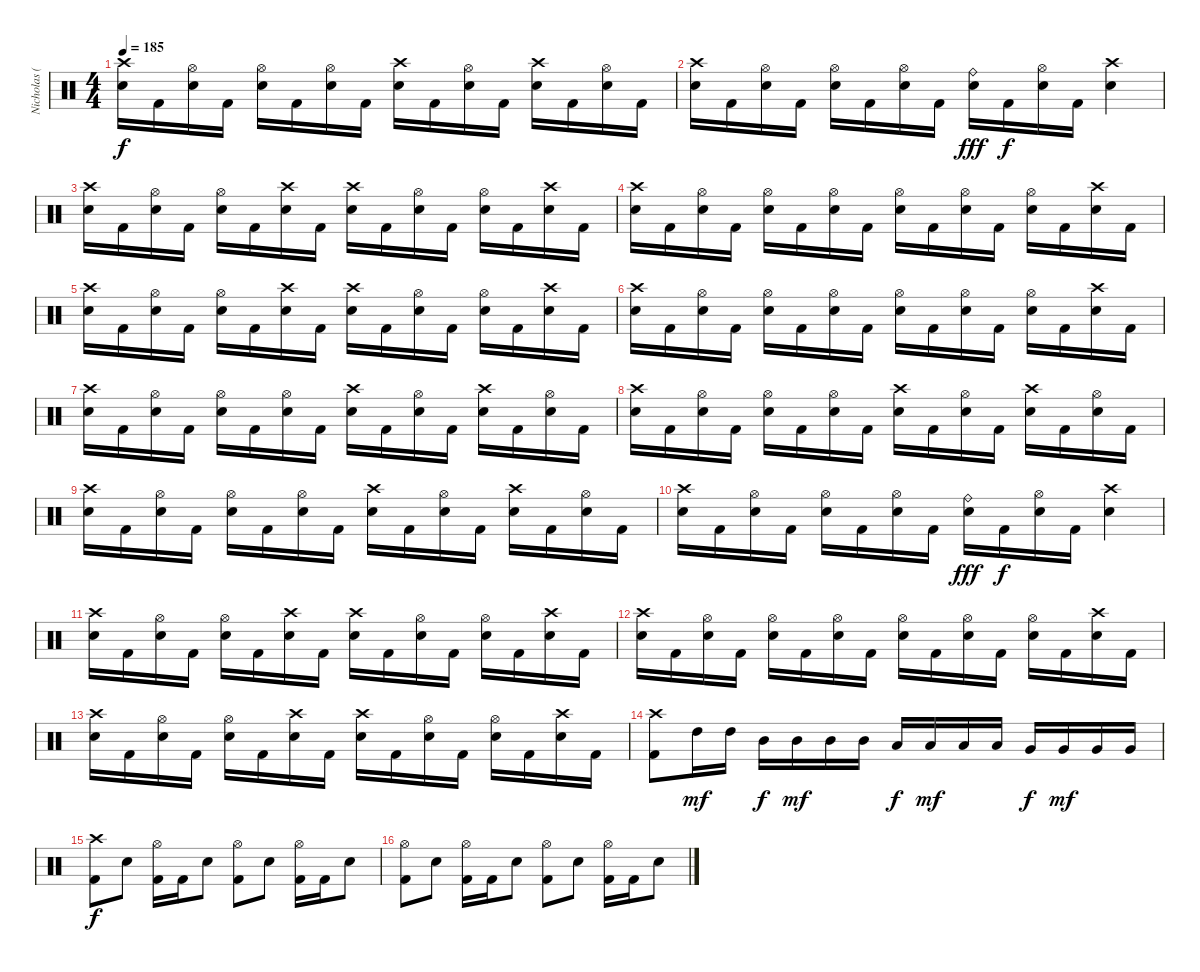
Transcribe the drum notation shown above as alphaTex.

\track ("Nicholas (Drums)" "Nicholas (") {instrument percussion}
\staff {score}
\articulation defaults
\ts (4 4)
\tempo 185
\clef neutral
\ks c
("Crash high (hit)" "Electric Snare (hit)").16{dy f} "Kick (hit) 2".16 ("Hi-Hat (open)" "Electric Snare (hit)").16 "Kick (hit) 2".16 ("Hi-Hat (open)" "Electric Snare (hit)").16 "Kick (hit) 2".16 ("Hi-Hat (open)" "Electric Snare (hit)").16 "Kick (hit) 2".16 ("Crash high (hit)" "Electric Snare (hit)").16 "Kick (hit) 2".16 ("Hi-Hat (open)" "Electric Snare (hit)").16 "Kick (hit) 2".16 ("Crash high (hit)" "Electric Snare (hit)").16 "Kick (hit) 2".16 ("Hi-Hat (open)" "Electric Snare (hit)").16 "Kick (hit) 2".16 |
("Crash high (hit)" "Electric Snare (hit)").16 "Kick (hit) 2".16 ("Hi-Hat (open)" "Electric Snare (hit)").16 "Kick (hit) 2".16 ("Hi-Hat (open)" "Electric Snare (hit)").16 "Kick (hit) 2".16 ("Hi-Hat (open)" "Electric Snare (hit)").16 "Kick (hit) 2".16 ("Ride (bell)" "Electric Snare (hit)").16{dy fff} "Kick (hit) 2".16{dy f} ("Hi-Hat (open)" "Electric Snare (hit)").16 "Kick (hit) 2".16 ("Crash high (hit)" "Electric Snare (hit)").4 |
("Crash high (hit)" "Electric Snare (hit)").16 "Kick (hit) 2".16 ("Hi-Hat (open)" "Electric Snare (hit)").16 "Kick (hit) 2".16 ("Hi-Hat (open)" "Electric Snare (hit)").16 "Kick (hit) 2".16 ("Crash high (hit)" "Electric Snare (hit)").16 "Kick (hit) 2".16 ("Crash high (hit)" "Electric Snare (hit)").16 "Kick (hit) 2".16 ("Hi-Hat (open)" "Electric Snare (hit)").16 "Kick (hit) 2".16 ("Hi-Hat (open)" "Electric Snare (hit)").16 "Kick (hit) 2".16 ("Crash high (hit)" "Electric Snare (hit)").16 "Kick (hit) 2".16 |
("Crash high (hit)" "Electric Snare (hit)").16 "Kick (hit) 2".16 ("Hi-Hat (open)" "Electric Snare (hit)").16 "Kick (hit) 2".16 ("Hi-Hat (open)" "Electric Snare (hit)").16 "Kick (hit) 2".16 ("Hi-Hat (open)" "Electric Snare (hit)").16 "Kick (hit) 2".16 ("Hi-Hat (open)" "Electric Snare (hit)").16 "Kick (hit) 2".16 ("Hi-Hat (open)" "Electric Snare (hit)").16 "Kick (hit) 2".16 ("Hi-Hat (open)" "Electric Snare (hit)").16 "Kick (hit) 2".16 ("Crash high (hit)" "Electric Snare (hit)").16 "Kick (hit) 2".16 |
("Crash high (hit)" "Electric Snare (hit)").16 "Kick (hit) 2".16 ("Hi-Hat (open)" "Electric Snare (hit)").16 "Kick (hit) 2".16 ("Hi-Hat (open)" "Electric Snare (hit)").16 "Kick (hit) 2".16 ("Crash high (hit)" "Electric Snare (hit)").16 "Kick (hit) 2".16 ("Crash high (hit)" "Electric Snare (hit)").16 "Kick (hit) 2".16 ("Hi-Hat (open)" "Electric Snare (hit)").16 "Kick (hit) 2".16 ("Hi-Hat (open)" "Electric Snare (hit)").16 "Kick (hit) 2".16 ("Crash high (hit)" "Electric Snare (hit)").16 "Kick (hit) 2".16 |
("Crash high (hit)" "Electric Snare (hit)").16 "Kick (hit) 2".16 ("Hi-Hat (open)" "Electric Snare (hit)").16 "Kick (hit) 2".16 ("Hi-Hat (open)" "Electric Snare (hit)").16 "Kick (hit) 2".16 ("Hi-Hat (open)" "Electric Snare (hit)").16 "Kick (hit) 2".16 ("Hi-Hat (open)" "Electric Snare (hit)").16 "Kick (hit) 2".16 ("Hi-Hat (open)" "Electric Snare (hit)").16 "Kick (hit) 2".16 ("Hi-Hat (open)" "Electric Snare (hit)").16 "Kick (hit) 2".16 ("Crash high (hit)" "Electric Snare (hit)").16 "Kick (hit) 2".16 |
("Crash high (hit)" "Electric Snare (hit)").16 "Kick (hit) 2".16 ("Hi-Hat (open)" "Electric Snare (hit)").16 "Kick (hit) 2".16 ("Hi-Hat (open)" "Electric Snare (hit)").16 "Kick (hit) 2".16 ("Hi-Hat (open)" "Electric Snare (hit)").16 "Kick (hit) 2".16 ("Crash high (hit)" "Electric Snare (hit)").16 "Kick (hit) 2".16 ("Hi-Hat (open)" "Electric Snare (hit)").16 "Kick (hit) 2".16 ("Crash high (hit)" "Electric Snare (hit)").16 "Kick (hit) 2".16 ("Hi-Hat (open)" "Electric Snare (hit)").16 "Kick (hit) 2".16 |
("Crash high (hit)" "Electric Snare (hit)").16 "Kick (hit) 2".16 ("Hi-Hat (open)" "Electric Snare (hit)").16 "Kick (hit) 2".16 ("Hi-Hat (open)" "Electric Snare (hit)").16 "Kick (hit) 2".16 ("Hi-Hat (open)" "Electric Snare (hit)").16 "Kick (hit) 2".16 ("Crash high (hit)" "Electric Snare (hit)").16 "Kick (hit) 2".16 ("Hi-Hat (open)" "Electric Snare (hit)").16 "Kick (hit) 2".16 ("Crash high (hit)" "Electric Snare (hit)").16 "Kick (hit) 2".16 ("Hi-Hat (open)" "Electric Snare (hit)").16 "Kick (hit) 2".16 |
("Crash high (hit)" "Electric Snare (hit)").16 "Kick (hit) 2".16 ("Hi-Hat (open)" "Electric Snare (hit)").16 "Kick (hit) 2".16 ("Hi-Hat (open)" "Electric Snare (hit)").16 "Kick (hit) 2".16 ("Hi-Hat (open)" "Electric Snare (hit)").16 "Kick (hit) 2".16 ("Crash high (hit)" "Electric Snare (hit)").16 "Kick (hit) 2".16 ("Hi-Hat (open)" "Electric Snare (hit)").16 "Kick (hit) 2".16 ("Crash high (hit)" "Electric Snare (hit)").16 "Kick (hit) 2".16 ("Hi-Hat (open)" "Electric Snare (hit)").16 "Kick (hit) 2".16 |
("Crash high (hit)" "Electric Snare (hit)").16 "Kick (hit) 2".16 ("Hi-Hat (open)" "Electric Snare (hit)").16 "Kick (hit) 2".16 ("Hi-Hat (open)" "Electric Snare (hit)").16 "Kick (hit) 2".16 ("Hi-Hat (open)" "Electric Snare (hit)").16 "Kick (hit) 2".16 ("Ride (bell)" "Electric Snare (hit)").16{dy fff} "Kick (hit) 2".16{dy f} ("Hi-Hat (open)" "Electric Snare (hit)").16 "Kick (hit) 2".16 ("Crash high (hit)" "Electric Snare (hit)").4 |
("Crash high (hit)" "Electric Snare (hit)").16 "Kick (hit) 2".16 ("Hi-Hat (open)" "Electric Snare (hit)").16 "Kick (hit) 2".16 ("Hi-Hat (open)" "Electric Snare (hit)").16 "Kick (hit) 2".16 ("Crash high (hit)" "Electric Snare (hit)").16 "Kick (hit) 2".16 ("Crash high (hit)" "Electric Snare (hit)").16 "Kick (hit) 2".16 ("Hi-Hat (open)" "Electric Snare (hit)").16 "Kick (hit) 2".16 ("Hi-Hat (open)" "Electric Snare (hit)").16 "Kick (hit) 2".16 ("Crash high (hit)" "Electric Snare (hit)").16 "Kick (hit) 2".16 |
("Crash high (hit)" "Electric Snare (hit)").16 "Kick (hit) 2".16 ("Hi-Hat (open)" "Electric Snare (hit)").16 "Kick (hit) 2".16 ("Hi-Hat (open)" "Electric Snare (hit)").16 "Kick (hit) 2".16 ("Hi-Hat (open)" "Electric Snare (hit)").16 "Kick (hit) 2".16 ("Hi-Hat (open)" "Electric Snare (hit)").16 "Kick (hit) 2".16 ("Hi-Hat (open)" "Electric Snare (hit)").16 "Kick (hit) 2".16 ("Hi-Hat (open)" "Electric Snare (hit)").16 "Kick (hit) 2".16 ("Crash high (hit)" "Electric Snare (hit)").16 "Kick (hit) 2".16 |
("Crash high (hit)" "Electric Snare (hit)").16 "Kick (hit) 2".16 ("Hi-Hat (open)" "Electric Snare (hit)").16 "Kick (hit) 2".16 ("Hi-Hat (open)" "Electric Snare (hit)").16 "Kick (hit) 2".16 ("Crash high (hit)" "Electric Snare (hit)").16 "Kick (hit) 2".16 ("Crash high (hit)" "Electric Snare (hit)").16 "Kick (hit) 2".16 ("Hi-Hat (open)" "Electric Snare (hit)").16 "Kick (hit) 2".16 ("Hi-Hat (open)" "Electric Snare (hit)").16 "Kick (hit) 2".16 ("Crash high (hit)" "Electric Snare (hit)").16 "Kick (hit) 2".16 |
("Crash high (hit)" "Kick (hit) 2").8 "High Tom (hit)".16{dy mf} "High Tom (hit)".16 "Mid Tom (hit)".16{dy f} "Mid Tom (hit)".16{dy mf} "Mid Tom (hit)".16 "Mid Tom (hit)".16 "Low Tom (hit)".16{dy f} "Low Tom (hit)".16{dy mf} "Low Tom (hit)".16 "Low Tom (hit)".16 "Very Low Tom (hit)".16{dy f} "Very Low Tom (hit)".16{dy mf} "Very Low Tom (hit)".16 "Very Low Tom (hit)".16 |
("Crash high (hit)" "Kick (hit) 2").8{dy f} "Electric Snare (hit)".8 ("Hi-Hat (open)" "Kick (hit) 2").16 "Kick (hit) 2".16 "Electric Snare (hit)".8 ("Hi-Hat (open)" "Kick (hit) 2").8 "Electric Snare (hit)".8 ("Hi-Hat (open)" "Kick (hit) 2").16 "Kick (hit) 2".16 "Electric Snare (hit)".8 |
("Hi-Hat (open)" "Kick (hit) 2").8 "Electric Snare (hit)".8 ("Hi-Hat (open)" "Kick (hit) 2").16 "Kick (hit) 2".16 "Electric Snare (hit)".8 ("Hi-Hat (open)" "Kick (hit) 2").8 "Electric Snare (hit)".8 ("Hi-Hat (open)" "Kick (hit) 2").16 "Kick (hit) 2".16 "Electric Snare (hit)".8
